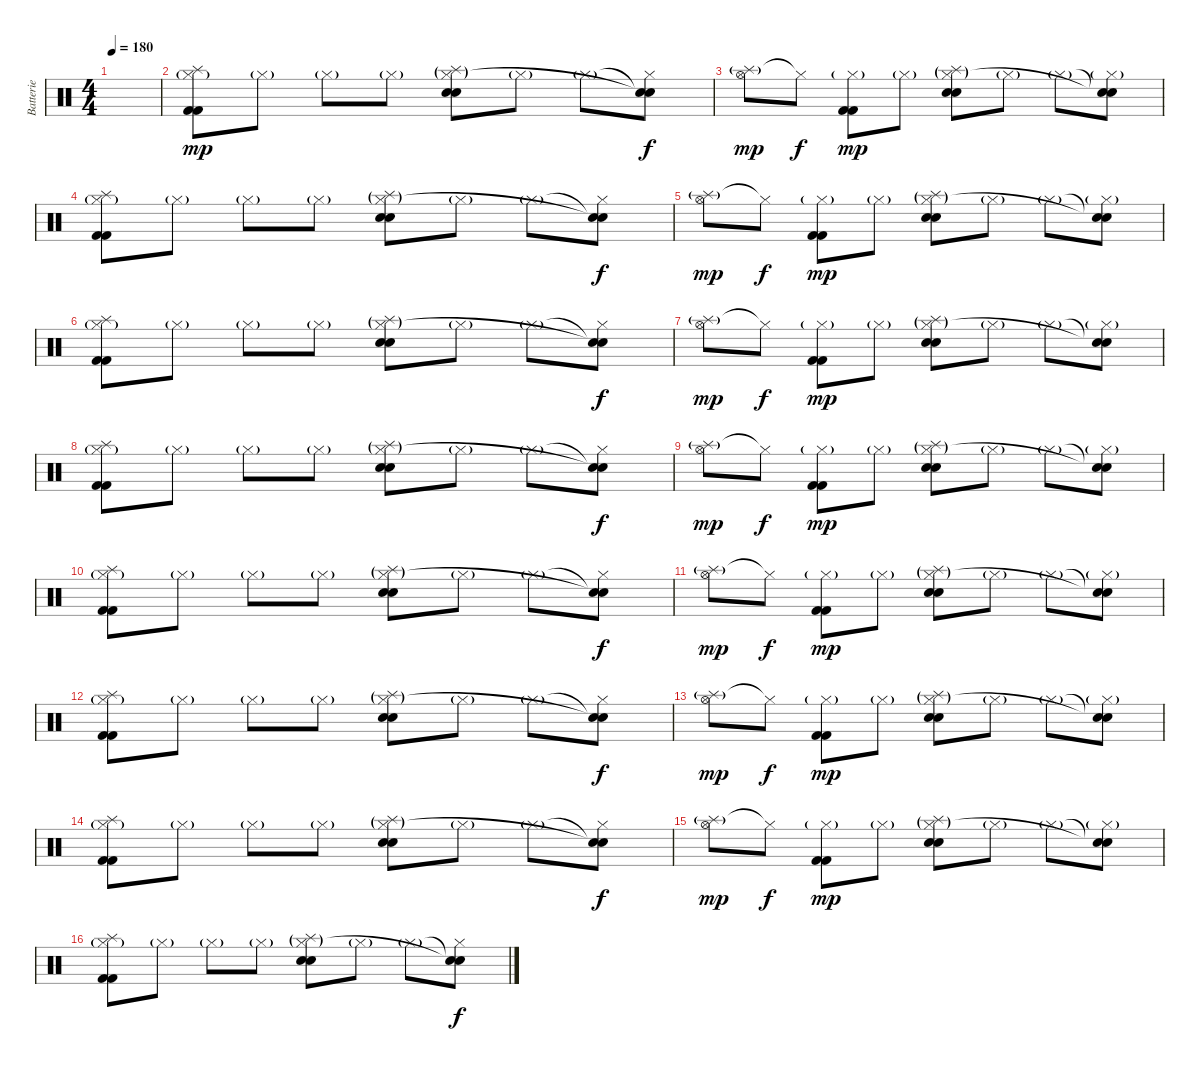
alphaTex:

\track ("Batterie" "Batterie") {instrument percussion}
\staff {score}
\articulation defaults
\ts (4 4)
\tempo 180
\clef neutral
\ks c
|
("Splash (hit)" "Hi-Hat (closed)"{g} "Kick (hit) 2" "Kick (hit) 2").8{dy mp} "Hi-Hat (closed)"{g}.8 "Hi-Hat (closed)"{g}.8 "Hi-Hat (closed)"{g}.8 ("Splash (hit)"{g} "Hi-Hat (closed)"{g} "Electric Snare (hit)" "Snare (hit) 2").8 "Hi-Hat (closed)"{g}.8 "Hi-Hat (closed)"{g}.8 ("Snare (hit)"{t} "Snare (hit)"{t} "Hi-Hat (closed)").8{dy f} |
("Splash (hit)"{g} "Hi-Hat (open)").8{dy mp} "Hi-Hat (closed)"{t}.8{dy f} ("Hi-Hat (closed)"{g} "Kick (hit) 2" "Kick (hit) 2").8{dy mp} "Hi-Hat (closed)"{g}.8 ("Splash (hit)"{g} "Hi-Hat (closed)"{g} "Electric Snare (hit)" "Snare (hit) 2").8 "Hi-Hat (closed)"{g}.8 "Hi-Hat (closed)"{g}.8 ("Snare (hit)"{t} "Snare (hit)"{t} "Hi-Hat (closed)"{g}).8 |
("Splash (hit)" "Hi-Hat (closed)"{g} "Kick (hit) 2" "Kick (hit) 2").8 "Hi-Hat (closed)"{g}.8 "Hi-Hat (closed)"{g}.8 "Hi-Hat (closed)"{g}.8 ("Splash (hit)"{g} "Hi-Hat (closed)"{g} "Electric Snare (hit)" "Snare (hit) 2").8 "Hi-Hat (closed)"{g}.8 "Hi-Hat (closed)"{g}.8 ("Snare (hit)"{t} "Snare (hit)"{t} "Hi-Hat (closed)").8{dy f} |
("Splash (hit)"{g} "Hi-Hat (open)").8{dy mp} "Hi-Hat (closed)"{t}.8{dy f} ("Hi-Hat (closed)"{g} "Kick (hit) 2" "Kick (hit) 2").8{dy mp} "Hi-Hat (closed)"{g}.8 ("Splash (hit)"{g} "Hi-Hat (closed)"{g} "Electric Snare (hit)" "Snare (hit) 2").8 "Hi-Hat (closed)"{g}.8 "Hi-Hat (closed)"{g}.8 ("Snare (hit)"{t} "Snare (hit)"{t} "Hi-Hat (closed)"{g}).8 |
("Splash (hit)" "Hi-Hat (closed)"{g} "Kick (hit) 2" "Kick (hit) 2").8 "Hi-Hat (closed)"{g}.8 "Hi-Hat (closed)"{g}.8 "Hi-Hat (closed)"{g}.8 ("Splash (hit)"{g} "Hi-Hat (closed)"{g} "Electric Snare (hit)" "Snare (hit) 2").8 "Hi-Hat (closed)"{g}.8 "Hi-Hat (closed)"{g}.8 ("Snare (hit)"{t} "Snare (hit)"{t} "Hi-Hat (closed)").8{dy f} |
("Splash (hit)"{g} "Hi-Hat (open)").8{dy mp} "Hi-Hat (closed)"{t}.8{dy f} ("Hi-Hat (closed)"{g} "Kick (hit) 2" "Kick (hit) 2").8{dy mp} "Hi-Hat (closed)"{g}.8 ("Splash (hit)"{g} "Hi-Hat (closed)"{g} "Electric Snare (hit)" "Snare (hit) 2").8 "Hi-Hat (closed)"{g}.8 "Hi-Hat (closed)"{g}.8 ("Snare (hit)"{t} "Snare (hit)"{t} "Hi-Hat (closed)"{g}).8 |
("Splash (hit)" "Hi-Hat (closed)"{g} "Kick (hit) 2" "Kick (hit) 2").8 "Hi-Hat (closed)"{g}.8 "Hi-Hat (closed)"{g}.8 "Hi-Hat (closed)"{g}.8 ("Splash (hit)"{g} "Hi-Hat (closed)"{g} "Electric Snare (hit)" "Snare (hit) 2").8 "Hi-Hat (closed)"{g}.8 "Hi-Hat (closed)"{g}.8 ("Snare (hit)"{t} "Snare (hit)"{t} "Hi-Hat (closed)").8{dy f} |
("Splash (hit)"{g} "Hi-Hat (open)").8{dy mp} "Hi-Hat (closed)"{t}.8{dy f} ("Hi-Hat (closed)"{g} "Kick (hit) 2" "Kick (hit) 2").8{dy mp} "Hi-Hat (closed)"{g}.8 ("Splash (hit)"{g} "Hi-Hat (closed)"{g} "Electric Snare (hit)" "Snare (hit) 2").8 "Hi-Hat (closed)"{g}.8 "Hi-Hat (closed)"{g}.8 ("Snare (hit)"{t} "Snare (hit)"{t} "Hi-Hat (closed)"{g}).8 |
("Splash (hit)" "Hi-Hat (closed)"{g} "Kick (hit) 2" "Kick (hit) 2").8 "Hi-Hat (closed)"{g}.8 "Hi-Hat (closed)"{g}.8 "Hi-Hat (closed)"{g}.8 ("Splash (hit)"{g} "Hi-Hat (closed)"{g} "Electric Snare (hit)" "Snare (hit) 2").8 "Hi-Hat (closed)"{g}.8 "Hi-Hat (closed)"{g}.8 ("Snare (hit)"{t} "Snare (hit)"{t} "Hi-Hat (closed)").8{dy f} |
("Splash (hit)"{g} "Hi-Hat (open)").8{dy mp} "Hi-Hat (closed)"{t}.8{dy f} ("Hi-Hat (closed)"{g} "Kick (hit) 2" "Kick (hit) 2").8{dy mp} "Hi-Hat (closed)"{g}.8 ("Splash (hit)"{g} "Hi-Hat (closed)"{g} "Electric Snare (hit)" "Snare (hit) 2").8 "Hi-Hat (closed)"{g}.8 "Hi-Hat (closed)"{g}.8 ("Snare (hit)"{t} "Snare (hit)"{t} "Hi-Hat (closed)"{g}).8 |
("Splash (hit)" "Hi-Hat (closed)"{g} "Kick (hit) 2" "Kick (hit) 2").8 "Hi-Hat (closed)"{g}.8 "Hi-Hat (closed)"{g}.8 "Hi-Hat (closed)"{g}.8 ("Splash (hit)"{g} "Hi-Hat (closed)"{g} "Electric Snare (hit)" "Snare (hit) 2").8 "Hi-Hat (closed)"{g}.8 "Hi-Hat (closed)"{g}.8 ("Snare (hit)"{t} "Snare (hit)"{t} "Hi-Hat (closed)").8{dy f} |
("Splash (hit)"{g} "Hi-Hat (open)").8{dy mp} "Hi-Hat (closed)"{t}.8{dy f} ("Hi-Hat (closed)"{g} "Kick (hit) 2" "Kick (hit) 2").8{dy mp} "Hi-Hat (closed)"{g}.8 ("Splash (hit)"{g} "Hi-Hat (closed)"{g} "Electric Snare (hit)" "Snare (hit) 2").8 "Hi-Hat (closed)"{g}.8 "Hi-Hat (closed)"{g}.8 ("Snare (hit)"{t} "Snare (hit)"{t} "Hi-Hat (closed)"{g}).8 |
("Splash (hit)" "Hi-Hat (closed)"{g} "Kick (hit) 2" "Kick (hit) 2").8 "Hi-Hat (closed)"{g}.8 "Hi-Hat (closed)"{g}.8 "Hi-Hat (closed)"{g}.8 ("Splash (hit)"{g} "Hi-Hat (closed)"{g} "Electric Snare (hit)" "Snare (hit) 2").8 "Hi-Hat (closed)"{g}.8 "Hi-Hat (closed)"{g}.8 ("Snare (hit)"{t} "Snare (hit)"{t} "Hi-Hat (closed)").8{dy f} |
("Splash (hit)"{g} "Hi-Hat (open)").8{dy mp} "Hi-Hat (closed)"{t}.8{dy f} ("Hi-Hat (closed)"{g} "Kick (hit) 2" "Kick (hit) 2").8{dy mp} "Hi-Hat (closed)"{g}.8 ("Splash (hit)"{g} "Hi-Hat (closed)"{g} "Electric Snare (hit)" "Snare (hit) 2").8 "Hi-Hat (closed)"{g}.8 "Hi-Hat (closed)"{g}.8 ("Snare (hit)"{t} "Snare (hit)"{t} "Hi-Hat (closed)"{g}).8 |
("Splash (hit)" "Hi-Hat (closed)"{g} "Kick (hit) 2" "Kick (hit) 2").8 "Hi-Hat (closed)"{g}.8 "Hi-Hat (closed)"{g}.8 "Hi-Hat (closed)"{g}.8 ("Splash (hit)"{g} "Hi-Hat (closed)"{g} "Electric Snare (hit)" "Snare (hit) 2").8 "Hi-Hat (closed)"{g}.8 "Hi-Hat (closed)"{g}.8 ("Snare (hit)"{t} "Snare (hit)"{t} "Hi-Hat (closed)").8{dy f}
